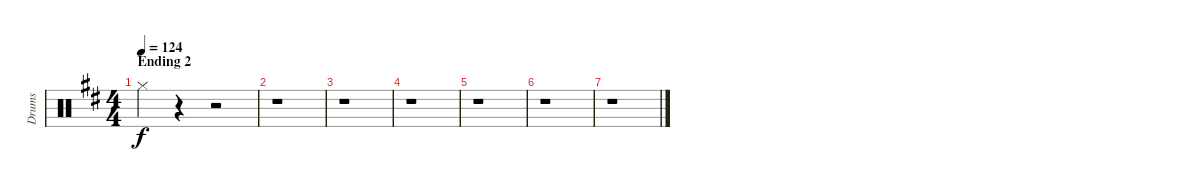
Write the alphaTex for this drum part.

\track ("Drums" "Drums") {instrument percussion}
\staff {score}
\articulation defaults
\ts (4 4)
\section ("" "Ending 2")
\tempo 124
\clef neutral
\ks d "Hi-Hat (closed)".4{dy f}
r.4 r.2 |
r.1 |
r.1 |
r.1 |
r.1 |
r.1 |
r.1
